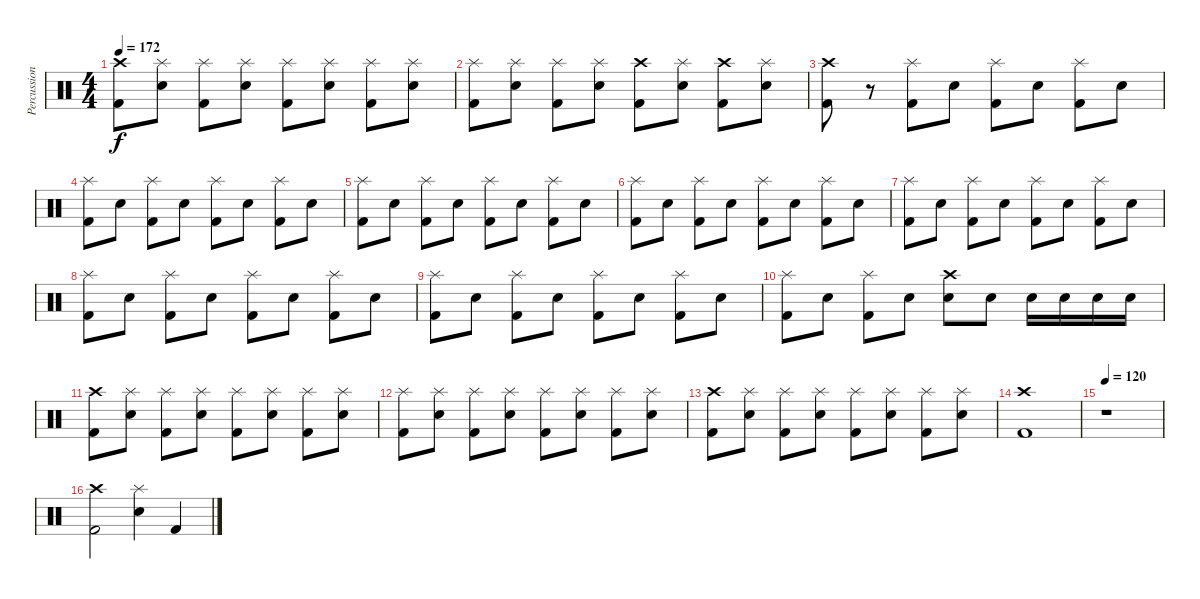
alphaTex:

\track ("Percussions" "Percussion") {instrument percussion}
\staff {score}
\articulation defaults
\ts (4 4)
\tempo 172
\clef neutral
\ks c
("Crash high (hit)" "Kick (hit) 2").8{dy f} ("Splash (hit)" "Electric Snare (hit)").8 ("Splash (hit)" "Kick (hit) 2").8 ("Splash (hit)" "Electric Snare (hit)").8 ("Splash (hit)" "Kick (hit) 2").8 ("Splash (hit)" "Electric Snare (hit)").8 ("Splash (hit)" "Kick (hit) 2").8 ("Splash (hit)" "Electric Snare (hit)").8 |
("Splash (hit)" "Kick (hit) 2").8 ("Splash (hit)" "Electric Snare (hit)").8 ("Splash (hit)" "Kick (hit) 2").8 ("Splash (hit)" "Electric Snare (hit)").8 ("Crash high (hit)" "Kick (hit) 2").8 ("Splash (hit)" "Electric Snare (hit)").8 ("Crash high (hit)" "Kick (hit) 2").8 ("Splash (hit)" "Electric Snare (hit)").8 |
("Crash high (hit)" "Kick (hit) 2").8 r.8 ("Splash (hit)" "Kick (hit) 2").8 "Electric Snare (hit)".8 ("Splash (hit)" "Kick (hit) 2").8 "Electric Snare (hit)".8 ("Splash (hit)" "Kick (hit) 2").8 "Electric Snare (hit)".8 |
("Splash (hit)" "Kick (hit) 2").8 "Electric Snare (hit)".8 ("Splash (hit)" "Kick (hit) 2").8 "Electric Snare (hit)".8 ("Splash (hit)" "Kick (hit) 2").8 "Electric Snare (hit)".8 ("Splash (hit)" "Kick (hit) 2").8 "Electric Snare (hit)".8 |
("Splash (hit)" "Kick (hit) 2").8 "Electric Snare (hit)".8 ("Splash (hit)" "Kick (hit) 2").8 "Electric Snare (hit)".8 ("Splash (hit)" "Kick (hit) 2").8 "Electric Snare (hit)".8 ("Splash (hit)" "Kick (hit) 2").8 "Electric Snare (hit)".8 |
("Splash (hit)" "Kick (hit) 2").8 "Electric Snare (hit)".8 ("Splash (hit)" "Kick (hit) 2").8 "Electric Snare (hit)".8 ("Splash (hit)" "Kick (hit) 2").8 "Electric Snare (hit)".8 ("Splash (hit)" "Kick (hit) 2").8 "Electric Snare (hit)".8 |
("Splash (hit)" "Kick (hit) 2").8 "Electric Snare (hit)".8 ("Splash (hit)" "Kick (hit) 2").8 "Electric Snare (hit)".8 ("Splash (hit)" "Kick (hit) 2").8 "Electric Snare (hit)".8 ("Splash (hit)" "Kick (hit) 2").8 "Electric Snare (hit)".8 |
("Splash (hit)" "Kick (hit) 2").8 "Electric Snare (hit)".8 ("Splash (hit)" "Kick (hit) 2").8 "Electric Snare (hit)".8 ("Splash (hit)" "Kick (hit) 2").8 "Electric Snare (hit)".8 ("Splash (hit)" "Kick (hit) 2").8 "Electric Snare (hit)".8 |
("Splash (hit)" "Kick (hit) 2").8 "Electric Snare (hit)".8 ("Splash (hit)" "Kick (hit) 2").8 "Electric Snare (hit)".8 ("Splash (hit)" "Kick (hit) 2").8 "Electric Snare (hit)".8 ("Splash (hit)" "Kick (hit) 2").8 "Electric Snare (hit)".8 |
("Splash (hit)" "Kick (hit) 2").8 "Electric Snare (hit)".8 ("Splash (hit)" "Kick (hit) 2").8 "Electric Snare (hit)".8 ("Crash high (hit)" "Electric Snare (hit)").8 "Electric Snare (hit)".8 "Electric Snare (hit)".16 "Electric Snare (hit)".16 "Electric Snare (hit)".16 "Electric Snare (hit)".16 |
("Crash high (hit)" "Kick (hit) 2").8 ("Splash (hit)" "Electric Snare (hit)").8 ("Splash (hit)" "Kick (hit) 2").8 ("Splash (hit)" "Electric Snare (hit)").8 ("Splash (hit)" "Kick (hit) 2").8 ("Splash (hit)" "Electric Snare (hit)").8 ("Splash (hit)" "Kick (hit) 2").8 ("Splash (hit)" "Electric Snare (hit)").8 |
("Splash (hit)" "Kick (hit) 2").8 ("Splash (hit)" "Electric Snare (hit)").8 ("Splash (hit)" "Kick (hit) 2").8 ("Splash (hit)" "Electric Snare (hit)").8 ("Splash (hit)" "Kick (hit) 2").8 ("Splash (hit)" "Electric Snare (hit)").8 ("Splash (hit)" "Kick (hit) 2").8 ("Splash (hit)" "Electric Snare (hit)").8 |
("Crash high (hit)" "Kick (hit) 2").8 ("Splash (hit)" "Electric Snare (hit)").8 ("Splash (hit)" "Kick (hit) 2").8 ("Splash (hit)" "Electric Snare (hit)").8 ("Splash (hit)" "Kick (hit) 2").8 ("Splash (hit)" "Electric Snare (hit)").8 ("Splash (hit)" "Kick (hit) 2").8 ("Splash (hit)" "Electric Snare (hit)").8 |
("Crash high (hit)" "Kick (hit) 2").1 |
\tempo 120
r.1 |
("Crash high (hit)" "Kick (hit) 2").2 ("Splash (hit)" "Electric Snare (hit)").4 "Kick (hit) 2".4
